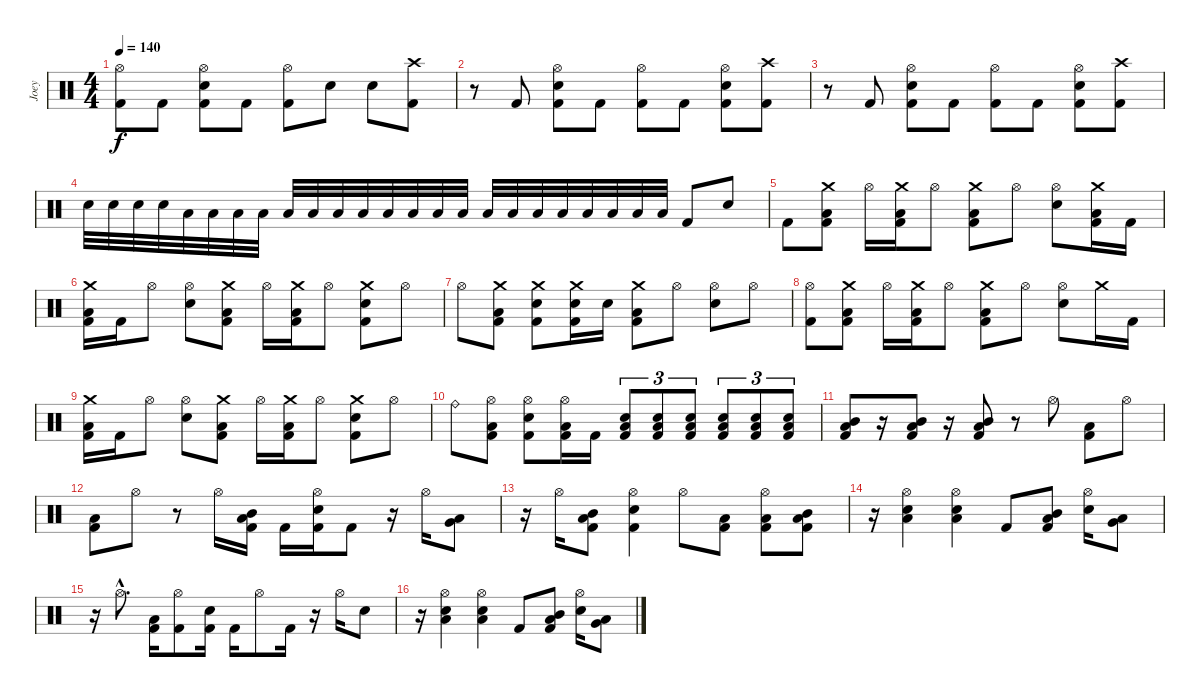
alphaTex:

\track ("Joey" "Joey") {instrument percussion}
\staff {score}
\articulation defaults
\ts (4 4)
\tempo 140
\clef neutral
\ks c
("Hi-Hat (open)" "Kick (hit) 2").8{dy f} "Kick (hit) 2".8 ("Hi-Hat (open)" "Electric Snare (hit)" "Kick (hit) 2").8 "Kick (hit) 2".8 ("Hi-Hat (open)" "Kick (hit) 2").8 "Electric Snare (hit)".8 "Electric Snare (hit)".8 ("Crash high (hit)" "Kick (hit) 2").8 |
r.8 "Kick (hit) 2".8 ("Hi-Hat (open)" "Electric Snare (hit)" "Kick (hit) 2").8 "Kick (hit) 2".8 ("Hi-Hat (open)" "Kick (hit) 2").8 "Kick (hit) 2".8 ("Hi-Hat (open)" "Electric Snare (hit)" "Kick (hit) 2").8 ("Crash high (hit)" "Kick (hit) 2").8 |
r.8 "Kick (hit) 2".8 ("Hi-Hat (open)" "Electric Snare (hit)" "Kick (hit) 2").8 "Kick (hit) 2".8 ("Hi-Hat (open)" "Kick (hit) 2").8 "Kick (hit) 2".8 ("Hi-Hat (open)" "Electric Snare (hit)" "Kick (hit) 2").8 ("Crash high (hit)" "Kick (hit) 2").8 |
"Electric Snare (hit)".32 "Electric Snare (hit)".32 "Electric Snare (hit)".32 "Electric Snare (hit)".32 "Low Floor Tom (hit)".32 "Low Floor Tom (hit)".32 "Low Floor Tom (hit)".32 "Low Floor Tom (hit)".32 "Low Floor Tom (hit)".32 "Low Floor Tom (hit)".32 "Low Floor Tom (hit)".32 "Low Floor Tom (hit)".32 "Low Floor Tom (hit)".32 "Low Floor Tom (hit)".32 "Low Floor Tom (hit)".32 "Low Floor Tom (hit)".32 "Low Floor Tom (hit)".32 "Low Floor Tom (hit)".32 "Low Floor Tom (hit)".32 "Low Floor Tom (hit)".32 "Low Floor Tom (hit)".32 "Low Floor Tom (hit)".32 "Low Floor Tom (hit)".32 "Low Floor Tom (hit)".32 "Kick (hit) 2".8 "Electric Snare (hit)".8 |
"Kick (hit) 2".8 ("Crash medium (hit)" "Low Floor Tom (hit)" "Kick (hit) 2").8 "Hi-Hat (open)".16 ("Crash medium (hit)" "Low Floor Tom (hit)" "Kick (hit) 2").16 "Hi-Hat (open)".8 ("Crash medium (hit)" "Low Floor Tom (hit)" "Kick (hit) 2").8 "Hi-Hat (open)".8 ("Hi-Hat (open)" "Electric Snare (hit)").8 ("Crash medium (hit)" "Low Floor Tom (hit)" "Kick (hit) 2").16 "Kick (hit) 2".16 |
("Crash medium (hit)" "Low Floor Tom (hit)" "Kick (hit) 2").16 "Kick (hit) 2".16 "Hi-Hat (open)".8 ("Hi-Hat (open)" "Electric Snare (hit)").8 ("Crash medium (hit)" "Low Floor Tom (hit)" "Kick (hit) 2").8 "Hi-Hat (open)".16 ("Crash medium (hit)" "Low Floor Tom (hit)" "Kick (hit) 2").16 "Hi-Hat (open)".8 ("Crash medium (hit)" "Electric Snare (hit)" "Kick (hit) 2").8 "Hi-Hat (open)".8 |
"Hi-Hat (open)".8 ("Crash medium (hit)" "Low Floor Tom (hit)" "Kick (hit) 2").8 ("Crash medium (hit)" "Electric Snare (hit)" "Kick (hit) 2").8 ("Crash medium (hit)" "Electric Snare (hit)" "Kick (hit) 2").16 "Electric Snare (hit)".16 ("Crash medium (hit)" "Low Floor Tom (hit)" "Kick (hit) 2").8 "Hi-Hat (open)".8 ("Hi-Hat (open)" "Electric Snare (hit)").8 "Hi-Hat (open)".8 |
("Hi-Hat (open)" "Kick (hit) 2").8 ("Crash medium (hit)" "Low Floor Tom (hit)" "Kick (hit) 2").8 "Hi-Hat (open)".16 ("Crash medium (hit)" "Low Floor Tom (hit)" "Kick (hit) 2").16 "Hi-Hat (open)".8 ("Crash medium (hit)" "Low Floor Tom (hit)" "Kick (hit) 2").8 "Hi-Hat (open)".8 ("Hi-Hat (open)" "Electric Snare (hit)").8 "Crash medium (hit)".16 "Kick (hit) 2".16 |
("Crash medium (hit)" "Low Floor Tom (hit)" "Kick (hit) 2").16 "Kick (hit) 2".16 "Hi-Hat (open)".8 ("Hi-Hat (open)" "Electric Snare (hit)").8 ("Crash medium (hit)" "Low Floor Tom (hit)" "Kick (hit) 2").8 "Hi-Hat (open)".16 ("Crash medium (hit)" "Low Floor Tom (hit)" "Kick (hit) 2").16 "Hi-Hat (open)".8 ("Crash medium (hit)" "Electric Snare (hit)" "Kick (hit) 2").8 "Hi-Hat (open)".8 |
"Ride (bell)".8 ("Hi-Hat (open)" "Low Floor Tom (hit)" "Kick (hit) 2").8 ("Hi-Hat (open)" "Electric Snare (hit)" "Kick (hit) 2").8 ("Hi-Hat (open)" "Low Floor Tom (hit)" "Kick (hit) 2").16 "Kick (hit) 2".16 ("Electric Snare (hit)" "Low Floor Tom (hit)" "Kick (hit) 2").8{tu (3 2)} ("Electric Snare (hit)" "Low Floor Tom (hit)" "Kick (hit) 2").8{tu (3 2)} ("Electric Snare (hit)" "Low Floor Tom (hit)" "Kick (hit) 2").8{tu (3 2)} ("Electric Snare (hit)" "Low Floor Tom (hit)" "Kick (hit) 2").8{tu (3 2)} ("Electric Snare (hit)" "Low Floor Tom (hit)" "Kick (hit) 2").8{tu (3 2)} ("Electric Snare (hit)" "Low Floor Tom (hit)" "Kick (hit) 2").8{tu (3 2)} |
("Mid Tom (hit)" "Low Floor Tom (hit)" "Kick (hit) 2").8 r.16 ("Mid Tom (hit)" "Low Floor Tom (hit)" "Kick (hit) 2").8 r.16 ("Mid Tom (hit)" "Low Floor Tom (hit)" "Kick (hit) 2").8 r.8 "Hi-Hat (open)".8 ("Low Floor Tom (hit)" "Kick (hit) 2").8 "Hi-Hat (open)".8 |
("Low Floor Tom (hit)" "Kick (hit) 2").8 "Hi-Hat (open)".8 r.8 "Hi-Hat (open)".16 ("Mid Tom (hit)" "Low Floor Tom (hit)" "Kick (hit) 2").16 "Kick (hit) 2".16 ("Hi-Hat (open)" "Electric Snare (hit)" "Kick (hit) 2").16 "Kick (hit) 2".8 r.16 "Hi-Hat (open)".16 ("Low Floor Tom (hit)" "Very Low Tom (hit)").8 |
r.16 "Hi-Hat (open)".16 ("Mid Tom (hit)" "Low Floor Tom (hit)" "Kick (hit) 2").8 ("Hi-Hat (open)" "Electric Snare (hit)" "Kick (hit) 2").4 "Hi-Hat (open)".8 ("Low Floor Tom (hit)" "Kick (hit) 2").8 ("Hi-Hat (open)" "Low Floor Tom (hit)" "Kick (hit) 2").8 ("Mid Tom (hit)" "Low Floor Tom (hit)" "Kick (hit) 2").8 |
r.16 ("Hi-Hat (open)" "Electric Snare (hit)" "Low Floor Tom (hit)").4 ("Hi-Hat (open)" "Electric Snare (hit)" "Low Floor Tom (hit)").4 "Kick (hit) 2".8 ("Mid Tom (hit)" "Low Floor Tom (hit)" "Kick (hit) 2").8 ("Hi-Hat (open)" "Electric Snare (hit)").16 ("Low Floor Tom (hit)" "Very Low Tom (hit)").8 |
r.16 "Hi-Hat (open)"{hac}.8{d} ("Low Floor Tom (hit)" "Kick (hit) 2").16 ("Hi-Hat (open)" "Kick (hit) 2").8 ("Kick (hit) 2" "Electric Snare (hit)").16 "Kick (hit) 2".16 "Hi-Hat (open)".8 "Kick (hit) 2".16 r.16 "Hi-Hat (open)".16 "Electric Snare (hit)".8 |
r.16 ("Hi-Hat (open)" "Electric Snare (hit)" "Low Floor Tom (hit)").4 ("Hi-Hat (open)" "Electric Snare (hit)" "Low Floor Tom (hit)").4 "Kick (hit) 2".8 ("Mid Tom (hit)" "Low Floor Tom (hit)" "Kick (hit) 2").8 ("Hi-Hat (open)" "Electric Snare (hit)").16 ("Low Floor Tom (hit)" "Very Low Tom (hit)").8
